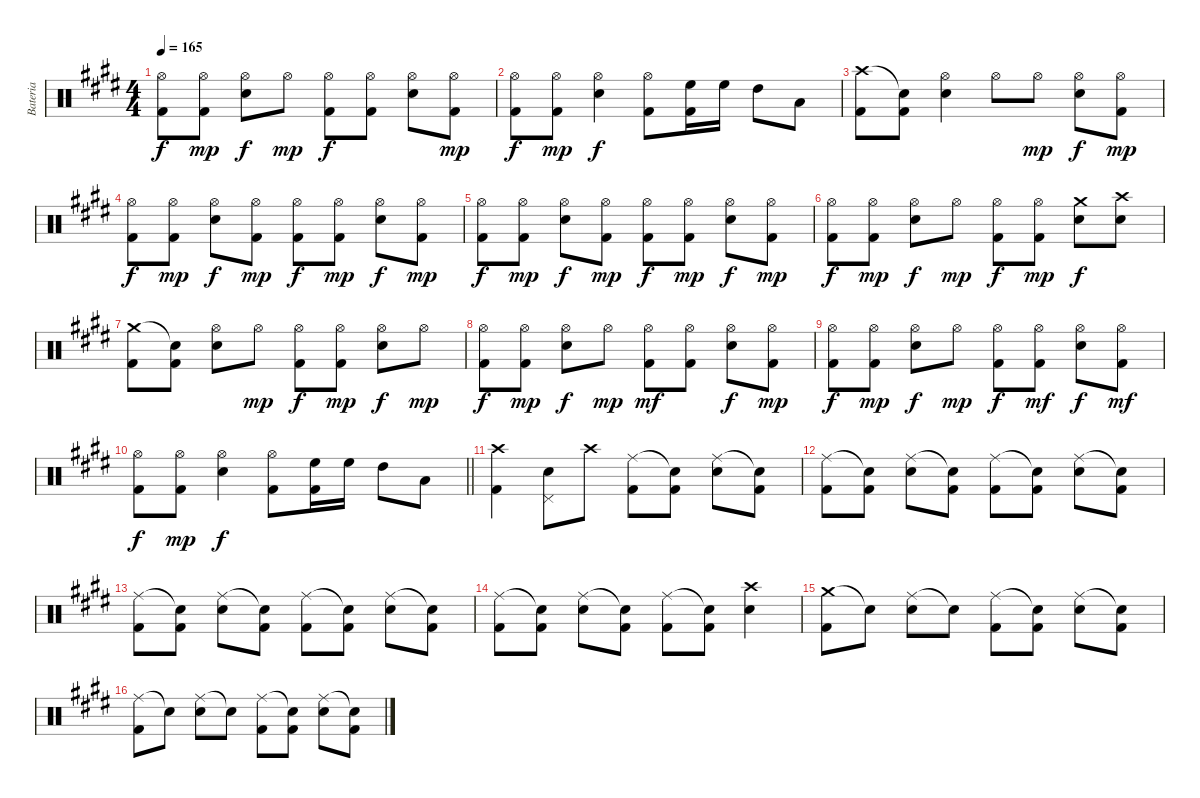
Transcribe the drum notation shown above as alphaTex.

\track ("Bateria" "Bateria") {instrument percussion}
\staff {score}
\articulation defaults
\ts (4 4)
\tempo 165
\clef neutral
\ks e
("Hi-Hat (open)" "Kick (hit) 2").8{dy f} ("Hi-Hat (open)" "Kick (hit) 2").8{dy mp} ("Hi-Hat (open)" "Electric Snare (hit)").8{dy f} "Hi-Hat (open)".8{dy mp} ("Hi-Hat (open)" "Kick (hit) 2").8{dy f} ("Hi-Hat (open)" "Kick (hit) 2").8 ("Hi-Hat (open)" "Electric Snare (hit)").8 ("Hi-Hat (open)" "Kick (hit) 2").8{dy mp} |
("Hi-Hat (open)" "Kick (hit) 2").8{dy f} ("Hi-Hat (open)" "Kick (hit) 2").8{dy mp} ("Hi-Hat (open)" "Electric Snare (hit)").4{dy f} ("Hi-Hat (open)" "Kick (hit) 2").8 ("High Floor Tom (hit)" "Kick (hit) 2").16 "High Floor Tom (hit)".16 "High Tom (hit)".8 "Low Tom (hit)".8 |
("Crash high (hit)" "Kick (hit) 2").8 ("Snare (hit)"{t} "Kick (hit) 2").8 ("Hi-Hat (open)" "Electric Snare (hit)").4 "Hi-Hat (open)".8 "Hi-Hat (open)".8{dy mp} ("Hi-Hat (open)" "Electric Snare (hit)").8{dy f} ("Hi-Hat (open)" "Kick (hit) 2").8{dy mp} |
("Hi-Hat (open)" "Kick (hit) 2").8{dy f} ("Hi-Hat (open)" "Kick (hit) 2").8{dy mp} ("Hi-Hat (open)" "Electric Snare (hit)").8{dy f} ("Hi-Hat (open)" "Kick (hit) 2").8{dy mp} ("Hi-Hat (open)" "Kick (hit) 2").8{dy f} ("Hi-Hat (open)" "Kick (hit) 2").8{dy mp} ("Hi-Hat (open)" "Electric Snare (hit)").8{dy f} ("Hi-Hat (open)" "Kick (hit) 2").8{dy mp} |
("Hi-Hat (open)" "Kick (hit) 2").8{dy f} ("Hi-Hat (open)" "Kick (hit) 2").8{dy mp} ("Hi-Hat (open)" "Electric Snare (hit)").8{dy f} ("Hi-Hat (open)" "Kick (hit) 2").8{dy mp} ("Hi-Hat (open)" "Kick (hit) 2").8{dy f} ("Hi-Hat (open)" "Kick (hit) 2").8{dy mp} ("Hi-Hat (open)" "Electric Snare (hit)").8{dy f} ("Hi-Hat (open)" "Kick (hit) 2").8{dy mp} |
("Hi-Hat (open)" "Kick (hit) 2").8{dy f} ("Hi-Hat (open)" "Kick (hit) 2").8{dy mp} ("Hi-Hat (open)" "Electric Snare (hit)").8{dy f} "Hi-Hat (open)".8{dy mp} ("Hi-Hat (open)" "Kick (hit) 2").8{dy f} ("Hi-Hat (open)" "Kick (hit) 2").8{dy mp} ("Crash medium (hit)" "Electric Snare (hit)").8{dy f} ("Crash high (hit)" "Electric Snare (hit)").8 |
("Crash medium (hit)" "Kick (hit) 2").8 ("Snare (hit)"{t} "Kick (hit) 2").8 ("Hi-Hat (open)" "Electric Snare (hit)").8 "Hi-Hat (open)".8{dy mp} ("Hi-Hat (open)" "Kick (hit) 2").8{dy f} ("Hi-Hat (open)" "Kick (hit) 2").8{dy mp} ("Hi-Hat (open)" "Electric Snare (hit)").8{dy f} "Hi-Hat (open)".8{dy mp} |
("Hi-Hat (open)" "Kick (hit) 2").8{dy f} ("Hi-Hat (open)" "Kick (hit) 2").8{dy mp} ("Hi-Hat (open)" "Electric Snare (hit)").8{dy f} "Hi-Hat (open)".8{dy mp} ("Hi-Hat (open)" "Kick (hit) 2").8{dy mf} ("Hi-Hat (open)" "Kick (hit) 2").8 ("Hi-Hat (open)" "Electric Snare (hit)").8{dy f} ("Hi-Hat (open)" "Kick (hit) 2").8{dy mp} |
("Hi-Hat (open)" "Kick (hit) 2").8{dy f} ("Hi-Hat (open)" "Kick (hit) 2").8{dy mp} ("Hi-Hat (open)" "Electric Snare (hit)").8{dy f} "Hi-Hat (open)".8{dy mp} ("Hi-Hat (open)" "Kick (hit) 2").8{dy f} ("Hi-Hat (open)" "Kick (hit) 2").8{dy mf} ("Hi-Hat (open)" "Electric Snare (hit)").8{dy f} ("Hi-Hat (open)" "Kick (hit) 2").8{dy mf} |
\barLineRight lightlight
("Hi-Hat (open)" "Kick (hit) 2").8{dy f} ("Hi-Hat (open)" "Kick (hit) 2").8{dy mp} ("Hi-Hat (open)" "Electric Snare (hit)").4{dy f} ("Hi-Hat (open)" "Kick (hit) 2").8 ("High Floor Tom (hit)" "Kick (hit) 2").16 "High Floor Tom (hit)".16 "High Tom (hit)".8 "Low Tom (hit)".8 |
("Crash high (hit)" "Kick (hit) 2").4 ("Pedal Hi-Hat (hit)" "Electric Snare (hit)").8 "Crash high (hit)".8 ("Ride (middle)" "Kick (hit) 2").8 ("Snare (hit)"{t} "Kick (hit) 2").8 ("Ride (middle)" "Electric Snare (hit)").8 ("Snare (hit)"{t} "Kick (hit) 2").8 |
("Ride (middle)" "Kick (hit) 2").8 ("Snare (hit)"{t} "Kick (hit) 2").8 ("Ride (middle)" "Electric Snare (hit)").8 ("Snare (hit)"{t} "Kick (hit) 2").8 ("Ride (middle)" "Kick (hit) 2").8 ("Snare (hit)"{t} "Kick (hit) 2").8 ("Ride (middle)" "Electric Snare (hit)").8 ("Snare (hit)"{t} "Kick (hit) 2").8 |
("Ride (middle)" "Kick (hit) 2").8 ("Snare (hit)"{t} "Kick (hit) 2").8 ("Ride (middle)" "Electric Snare (hit)").8 ("Snare (hit)"{t} "Kick (hit) 2").8 ("Ride (middle)" "Kick (hit) 2").8 ("Snare (hit)"{t} "Kick (hit) 2").8 ("Ride (middle)" "Electric Snare (hit)").8 ("Snare (hit)"{t} "Kick (hit) 2").8 |
("Ride (middle)" "Kick (hit) 2").8 ("Snare (hit)"{t} "Kick (hit) 2").8 ("Ride (middle)" "Electric Snare (hit)").8 ("Snare (hit)"{t} "Kick (hit) 2").8 ("Ride (middle)" "Kick (hit) 2").8 ("Snare (hit)"{t} "Kick (hit) 2").8 ("Crash high (hit)" "Electric Snare (hit)").4 |
("Crash medium (hit)" "Kick (hit) 2").8 "Snare (hit)"{t}.8 ("Ride (middle)" "Electric Snare (hit)").8 "Snare (hit)"{t}.8 ("Ride (middle)" "Kick (hit) 2").8 ("Snare (hit)"{t} "Kick (hit) 2").8 ("Ride (middle)" "Electric Snare (hit)").8 ("Snare (hit)"{t} "Kick (hit) 2").8 |
("Ride (middle)" "Kick (hit) 2").8 "Snare (hit)"{t}.8 ("Ride (middle)" "Electric Snare (hit)").8 "Snare (hit)"{t}.8 ("Ride (middle)" "Kick (hit) 2").8 ("Snare (hit)"{t} "Kick (hit) 2").8 ("Ride (middle)" "Electric Snare (hit)").8 ("Snare (hit)"{t} "Kick (hit) 2").8
